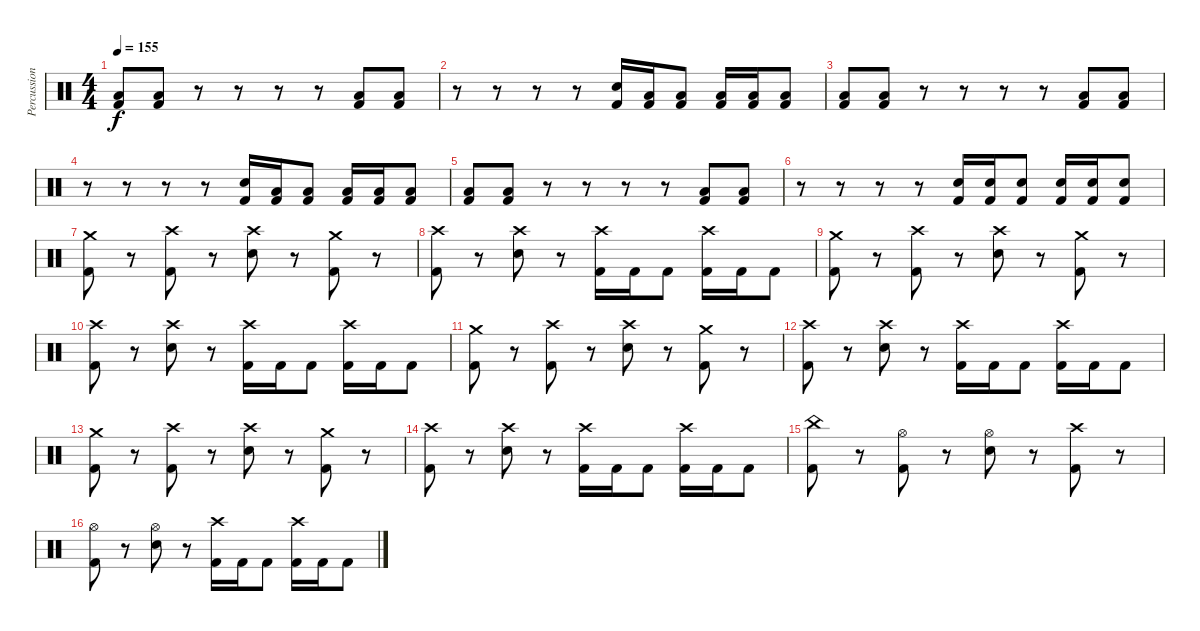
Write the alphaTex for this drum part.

\track ("Percussion" "Percussion") {instrument percussion}
\staff {score}
\articulation defaults
\ts (4 4)
\tempo 155
\clef neutral
\ks c
("Low Tom (hit)" "Kick (hit) 2").8{dy f} ("Low Tom (hit)" "Kick (hit) 2").8 r.8 r.8 r.8 r.8 ("Low Tom (hit)" "Kick (hit) 2").8 ("Low Tom (hit)" "Kick (hit) 2").8 |
r.8 r.8 r.8 r.8 ("Electric Snare (hit)" "Kick (hit) 2").16 ("Low Tom (hit)" "Kick (hit) 2").16 ("Low Tom (hit)" "Kick (hit) 2").8 ("Low Tom (hit)" "Kick (hit) 2").16 ("Low Tom (hit)" "Kick (hit) 2").16 ("Low Tom (hit)" "Kick (hit) 2").8 |
("Low Tom (hit)" "Kick (hit) 2").8 ("Low Tom (hit)" "Kick (hit) 2").8 r.8 r.8 r.8 r.8 ("Low Tom (hit)" "Kick (hit) 2").8 ("Low Tom (hit)" "Kick (hit) 2").8 |
r.8 r.8 r.8 r.8 ("Electric Snare (hit)" "Kick (hit) 2").16 ("Low Tom (hit)" "Kick (hit) 2").16 ("Low Tom (hit)" "Kick (hit) 2").8 ("Low Tom (hit)" "Kick (hit) 2").16 ("Low Tom (hit)" "Kick (hit) 2").16 ("Low Tom (hit)" "Kick (hit) 2").8 |
("Low Tom (hit)" "Kick (hit) 2").8 ("Low Tom (hit)" "Kick (hit) 2").8 r.8 r.8 r.8 r.8 ("Low Tom (hit)" "Kick (hit) 2").8 ("Low Tom (hit)" "Kick (hit) 2").8 |
r.8 r.8 r.8 r.8 ("Electric Snare (hit)" "Kick (hit) 2").16 ("Electric Snare (hit)" "Kick (hit) 2").16 ("Electric Snare (hit)" "Kick (hit) 2").8 ("Electric Snare (hit)" "Kick (hit) 2").16 ("Electric Snare (hit)" "Kick (hit) 2").16 ("Electric Snare (hit)" "Kick (hit) 2").8 |
("Crash medium (hit)" "Kick (hit) 2").8 r.8 ("Crash high (hit)" "Kick (hit) 2").8 r.8 ("Crash high (hit)" "Electric Snare (hit)").8 r.8 ("Crash medium (hit)" "Kick (hit) 2").8 r.8 |
("Crash high (hit)" "Kick (hit) 2").8 r.8 ("Crash high (hit)" "Electric Snare (hit)").8 r.8 ("Crash high (hit)" "Kick (hit) 2").16 "Kick (hit) 2".16 "Kick (hit) 2".8 ("Crash high (hit)" "Kick (hit) 2").16 "Kick (hit) 2".16 "Kick (hit) 2".8 |
("Crash medium (hit)" "Kick (hit) 2").8 r.8 ("Crash high (hit)" "Kick (hit) 2").8 r.8 ("Crash high (hit)" "Electric Snare (hit)").8 r.8 ("Crash medium (hit)" "Kick (hit) 2").8 r.8 |
("Crash high (hit)" "Kick (hit) 2").8 r.8 ("Crash high (hit)" "Electric Snare (hit)").8 r.8 ("Crash high (hit)" "Kick (hit) 2").16 "Kick (hit) 2".16 "Kick (hit) 2".8 ("Crash high (hit)" "Kick (hit) 2").16 "Kick (hit) 2".16 "Kick (hit) 2".8 |
("Crash medium (hit)" "Kick (hit) 2").8 r.8 ("Crash high (hit)" "Kick (hit) 2").8 r.8 ("Crash high (hit)" "Electric Snare (hit)").8 r.8 ("Crash medium (hit)" "Kick (hit) 2").8 r.8 |
("Crash high (hit)" "Kick (hit) 2").8 r.8 ("Crash high (hit)" "Electric Snare (hit)").8 r.8 ("Crash high (hit)" "Kick (hit) 2").16 "Kick (hit) 2".16 "Kick (hit) 2".8 ("Crash high (hit)" "Kick (hit) 2").16 "Kick (hit) 2".16 "Kick (hit) 2".8 |
("Crash medium (hit)" "Kick (hit) 2").8 r.8 ("Crash high (hit)" "Kick (hit) 2").8 r.8 ("Crash high (hit)" "Electric Snare (hit)").8 r.8 ("Crash medium (hit)" "Kick (hit) 2").8 r.8 |
("Crash high (hit)" "Kick (hit) 2").8 r.8 ("Crash high (hit)" "Electric Snare (hit)").8 r.8 ("Crash high (hit)" "Kick (hit) 2").16 "Kick (hit) 2".16 "Kick (hit) 2".8 ("Crash high (hit)" "Kick (hit) 2").16 "Kick (hit) 2".16 "Kick (hit) 2".8 |
("China (hit)" "Kick (hit) 2").8 r.8 ("Hi-Hat (open)" "Kick (hit) 2").8 r.8 ("Hi-Hat (open)" "Electric Snare (hit)").8 r.8 ("Crash high (hit)" "Kick (hit) 2").8 r.8 |
("Hi-Hat (open)" "Kick (hit) 2").8 r.8 ("Hi-Hat (open)" "Electric Snare (hit)").8 r.8 ("Crash high (hit)" "Kick (hit) 2").16 "Kick (hit) 2".16 "Kick (hit) 2".8 ("Crash high (hit)" "Kick (hit) 2").16 "Kick (hit) 2".16 "Kick (hit) 2".8
